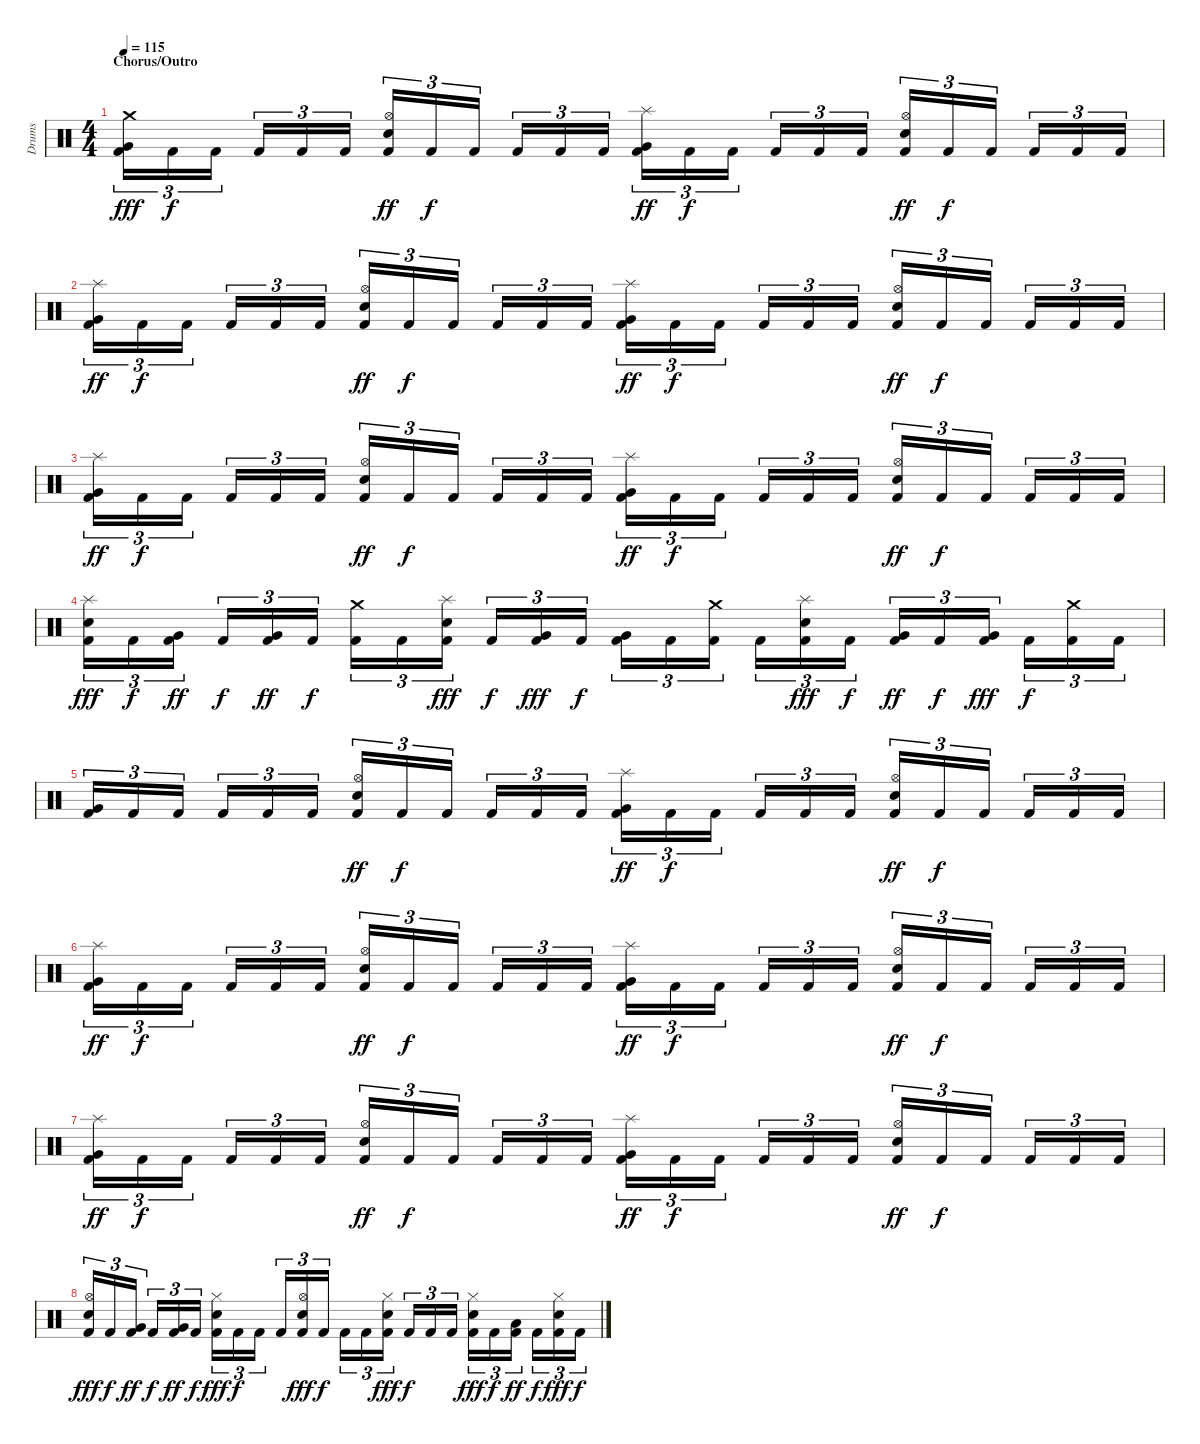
\track ("Drums" "Drums") {instrument percussion}
\staff {score}
\articulation defaults
\ts (4 4)
\section ("" "Chorus/Outro")
\tempo 115
\clef neutral
\ks c
("Crash medium (hit)" "Very Low Tom (hit)" "Kick (hit) 2").16{tu (3 2) dy fff} "Kick (hit) 2".16{tu (3 2) dy f} "Kick (hit) 2".16{tu (3 2) beam splitsecondary} "Kick (hit) 2".16{tu (3 2)} "Kick (hit) 2".16{tu (3 2)} "Kick (hit) 2".16{tu (3 2)} ("Hi-Hat (open)" "Snare (hit) 2" "Kick (hit) 2").16{tu (3 2) dy ff} "Kick (hit) 2".16{tu (3 2) dy f} "Kick (hit) 2".16{tu (3 2) beam splitsecondary} "Kick (hit) 2".16{tu (3 2)} "Kick (hit) 2".16{tu (3 2)} "Kick (hit) 2".16{tu (3 2)} ("Splash (hit)" "Very Low Tom (hit)" "Kick (hit) 2").16{tu (3 2) dy ff} "Kick (hit) 2".16{tu (3 2) dy f} "Kick (hit) 2".16{tu (3 2) beam splitsecondary} "Kick (hit) 2".16{tu (3 2)} "Kick (hit) 2".16{tu (3 2)} "Kick (hit) 2".16{tu (3 2)} ("Hi-Hat (open)" "Snare (hit) 2" "Kick (hit) 2").16{tu (3 2) dy ff} "Kick (hit) 2".16{tu (3 2) dy f} "Kick (hit) 2".16{tu (3 2) beam splitsecondary} "Kick (hit) 2".16{tu (3 2)} "Kick (hit) 2".16{tu (3 2)} "Kick (hit) 2".16{tu (3 2)} |
("Splash (hit)" "Very Low Tom (hit)" "Kick (hit) 2").16{tu (3 2) dy ff} "Kick (hit) 2".16{tu (3 2) dy f} "Kick (hit) 2".16{tu (3 2) beam splitsecondary} "Kick (hit) 2".16{tu (3 2)} "Kick (hit) 2".16{tu (3 2)} "Kick (hit) 2".16{tu (3 2)} ("Hi-Hat (open)" "Snare (hit) 2" "Kick (hit) 2").16{tu (3 2) dy ff} "Kick (hit) 2".16{tu (3 2) dy f} "Kick (hit) 2".16{tu (3 2) beam splitsecondary} "Kick (hit) 2".16{tu (3 2)} "Kick (hit) 2".16{tu (3 2)} "Kick (hit) 2".16{tu (3 2)} ("Splash (hit)" "Very Low Tom (hit)" "Kick (hit) 2").16{tu (3 2) dy ff} "Kick (hit) 2".16{tu (3 2) dy f} "Kick (hit) 2".16{tu (3 2) beam splitsecondary} "Kick (hit) 2".16{tu (3 2)} "Kick (hit) 2".16{tu (3 2)} "Kick (hit) 2".16{tu (3 2)} ("Hi-Hat (open)" "Snare (hit) 2" "Kick (hit) 2").16{tu (3 2) dy ff} "Kick (hit) 2".16{tu (3 2) dy f} "Kick (hit) 2".16{tu (3 2) beam splitsecondary} "Kick (hit) 2".16{tu (3 2)} "Kick (hit) 2".16{tu (3 2)} "Kick (hit) 2".16{tu (3 2)} |
("Splash (hit)" "Very Low Tom (hit)" "Kick (hit) 2").16{tu (3 2) dy ff} "Kick (hit) 2".16{tu (3 2) dy f} "Kick (hit) 2".16{tu (3 2) beam splitsecondary} "Kick (hit) 2".16{tu (3 2)} "Kick (hit) 2".16{tu (3 2)} "Kick (hit) 2".16{tu (3 2)} ("Hi-Hat (open)" "Snare (hit) 2" "Kick (hit) 2").16{tu (3 2) dy ff} "Kick (hit) 2".16{tu (3 2) dy f} "Kick (hit) 2".16{tu (3 2) beam splitsecondary} "Kick (hit) 2".16{tu (3 2)} "Kick (hit) 2".16{tu (3 2)} "Kick (hit) 2".16{tu (3 2)} ("Splash (hit)" "Very Low Tom (hit)" "Kick (hit) 2").16{tu (3 2) dy ff} "Kick (hit) 2".16{tu (3 2) dy f} "Kick (hit) 2".16{tu (3 2) beam splitsecondary} "Kick (hit) 2".16{tu (3 2)} "Kick (hit) 2".16{tu (3 2)} "Kick (hit) 2".16{tu (3 2)} ("Hi-Hat (open)" "Snare (hit) 2" "Kick (hit) 2").16{tu (3 2) dy ff} "Kick (hit) 2".16{tu (3 2) dy f} "Kick (hit) 2".16{tu (3 2) beam splitsecondary} "Kick (hit) 2".16{tu (3 2)} "Kick (hit) 2".16{tu (3 2)} "Kick (hit) 2".16{tu (3 2)} |
("Splash (hit)" "Snare (hit) 2" "Kick (hit) 2").16{tu (3 2) dy fff} "Kick (hit) 2".16{tu (3 2) dy f} ("Very Low Tom (hit)" "Kick (hit) 2").16{tu (3 2) dy ff beam splitsecondary} "Kick (hit) 2".16{tu (3 2) dy f} ("Very Low Tom (hit)" "Kick (hit) 2").16{tu (3 2) dy ff} "Kick (hit) 2".16{tu (3 2) dy f} ("Crash medium (hit)" "Kick (hit) 2").16{tu (3 2)} "Kick (hit) 2".16{tu (3 2)} ("Splash (hit)" "Snare (hit) 2" "Kick (hit) 2").16{tu (3 2) dy fff beam splitsecondary} "Kick (hit) 2".16{tu (3 2) dy f} ("Very Low Tom (hit)" "Kick (hit) 2").16{tu (3 2) dy fff} "Kick (hit) 2".16{tu (3 2) dy f} ("Very Low Tom (hit)" "Kick (hit) 2").16{tu (3 2)} "Kick (hit) 2".16{tu (3 2)} ("Crash medium (hit)" "Kick (hit) 2").16{tu (3 2) beam splitsecondary} "Kick (hit) 2".16{tu (3 2)} ("Splash (hit)" "Snare (hit) 2" "Kick (hit) 2").16{tu (3 2) dy fff} "Kick (hit) 2".16{tu (3 2) dy f} ("Very Low Tom (hit)" "Kick (hit) 2").16{tu (3 2) dy ff} "Kick (hit) 2".16{tu (3 2) dy f} ("Very Low Tom (hit)" "Kick (hit) 2").16{tu (3 2) dy fff beam splitsecondary} "Kick (hit) 2".16{tu (3 2) dy f} ("Crash medium (hit)" "Kick (hit) 2").16{tu (3 2)} "Kick (hit) 2".16{tu (3 2)} |
("Very Low Tom (hit)" "Kick (hit) 2").16{tu (3 2)} "Kick (hit) 2".16{tu (3 2)} "Kick (hit) 2".16{tu (3 2) beam splitsecondary} "Kick (hit) 2".16{tu (3 2)} "Kick (hit) 2".16{tu (3 2)} "Kick (hit) 2".16{tu (3 2)} ("Hi-Hat (open)" "Snare (hit) 2" "Kick (hit) 2").16{tu (3 2) dy ff} "Kick (hit) 2".16{tu (3 2) dy f} "Kick (hit) 2".16{tu (3 2) beam splitsecondary} "Kick (hit) 2".16{tu (3 2)} "Kick (hit) 2".16{tu (3 2)} "Kick (hit) 2".16{tu (3 2)} ("Splash (hit)" "Very Low Tom (hit)" "Kick (hit) 2").16{tu (3 2) dy ff} "Kick (hit) 2".16{tu (3 2) dy f} "Kick (hit) 2".16{tu (3 2) beam splitsecondary} "Kick (hit) 2".16{tu (3 2)} "Kick (hit) 2".16{tu (3 2)} "Kick (hit) 2".16{tu (3 2)} ("Hi-Hat (open)" "Snare (hit) 2" "Kick (hit) 2").16{tu (3 2) dy ff} "Kick (hit) 2".16{tu (3 2) dy f} "Kick (hit) 2".16{tu (3 2) beam splitsecondary} "Kick (hit) 2".16{tu (3 2)} "Kick (hit) 2".16{tu (3 2)} "Kick (hit) 2".16{tu (3 2)} |
("Splash (hit)" "Very Low Tom (hit)" "Kick (hit) 2").16{tu (3 2) dy ff} "Kick (hit) 2".16{tu (3 2) dy f} "Kick (hit) 2".16{tu (3 2) beam splitsecondary} "Kick (hit) 2".16{tu (3 2)} "Kick (hit) 2".16{tu (3 2)} "Kick (hit) 2".16{tu (3 2)} ("Hi-Hat (open)" "Snare (hit) 2" "Kick (hit) 2").16{tu (3 2) dy ff} "Kick (hit) 2".16{tu (3 2) dy f} "Kick (hit) 2".16{tu (3 2) beam splitsecondary} "Kick (hit) 2".16{tu (3 2)} "Kick (hit) 2".16{tu (3 2)} "Kick (hit) 2".16{tu (3 2)} ("Splash (hit)" "Very Low Tom (hit)" "Kick (hit) 2").16{tu (3 2) dy ff} "Kick (hit) 2".16{tu (3 2) dy f} "Kick (hit) 2".16{tu (3 2) beam splitsecondary} "Kick (hit) 2".16{tu (3 2)} "Kick (hit) 2".16{tu (3 2)} "Kick (hit) 2".16{tu (3 2)} ("Hi-Hat (open)" "Snare (hit) 2" "Kick (hit) 2").16{tu (3 2) dy ff} "Kick (hit) 2".16{tu (3 2) dy f} "Kick (hit) 2".16{tu (3 2) beam splitsecondary} "Kick (hit) 2".16{tu (3 2)} "Kick (hit) 2".16{tu (3 2)} "Kick (hit) 2".16{tu (3 2)} |
("Splash (hit)" "Very Low Tom (hit)" "Kick (hit) 2").16{tu (3 2) dy ff} "Kick (hit) 2".16{tu (3 2) dy f} "Kick (hit) 2".16{tu (3 2) beam splitsecondary} "Kick (hit) 2".16{tu (3 2)} "Kick (hit) 2".16{tu (3 2)} "Kick (hit) 2".16{tu (3 2)} ("Hi-Hat (open)" "Snare (hit) 2" "Kick (hit) 2").16{tu (3 2) dy ff} "Kick (hit) 2".16{tu (3 2) dy f} "Kick (hit) 2".16{tu (3 2) beam splitsecondary} "Kick (hit) 2".16{tu (3 2)} "Kick (hit) 2".16{tu (3 2)} "Kick (hit) 2".16{tu (3 2)} ("Splash (hit)" "Very Low Tom (hit)" "Kick (hit) 2").16{tu (3 2) dy ff} "Kick (hit) 2".16{tu (3 2) dy f} "Kick (hit) 2".16{tu (3 2) beam splitsecondary} "Kick (hit) 2".16{tu (3 2)} "Kick (hit) 2".16{tu (3 2)} "Kick (hit) 2".16{tu (3 2)} ("Hi-Hat (open)" "Snare (hit) 2" "Kick (hit) 2").16{tu (3 2) dy ff} "Kick (hit) 2".16{tu (3 2) dy f} "Kick (hit) 2".16{tu (3 2) beam splitsecondary} "Kick (hit) 2".16{tu (3 2)} "Kick (hit) 2".16{tu (3 2)} "Kick (hit) 2".16{tu (3 2)} |
("Hi-Hat (open)" "Snare (hit) 2" "Kick (hit) 2").16{tu (3 2) dy fff} "Kick (hit) 2".16{tu (3 2) dy f} ("Very Low Tom (hit)" "Kick (hit) 2").16{tu (3 2) dy ff beam splitsecondary} "Kick (hit) 2".16{tu (3 2) dy f} ("Very Low Tom (hit)" "Kick (hit) 2").16{tu (3 2) dy ff} "Kick (hit) 2".16{tu (3 2) dy f} ("Hi-Hat (closed)" "Snare (hit) 2" "Kick (hit) 2").16{tu (3 2) dy fff} "Kick (hit) 2".16{tu (3 2) dy f} "Kick (hit) 2".16{tu (3 2) beam splitsecondary} "Kick (hit) 2".16{tu (3 2)} ("Hi-Hat (open)" "Snare (hit) 2" "Kick (hit) 2").16{tu (3 2) dy fff} "Kick (hit) 2".16{tu (3 2) dy f} "Kick (hit) 2".16{tu (3 2)} "Kick (hit) 2".16{tu (3 2)} ("Hi-Hat (closed)" "Snare (hit) 2" "Kick (hit) 2").16{tu (3 2) dy fff beam splitsecondary} "Kick (hit) 2".16{tu (3 2) dy f} "Kick (hit) 2".16{tu (3 2)} "Kick (hit) 2".16{tu (3 2)} ("Hi-Hat (closed)" "Snare (hit) 2" "Kick (hit) 2").16{tu (3 2) dy fff} "Kick (hit) 2".16{tu (3 2) dy f} ("Low Floor Tom (hit)" "Kick (hit) 2").16{tu (3 2) dy ff beam splitsecondary} "Kick (hit) 2".16{tu (3 2) dy f} ("Hi-Hat (closed)" "Snare (hit) 2" "Kick (hit) 2").16{tu (3 2) dy fff} "Kick (hit) 2".16{tu (3 2) dy f}
